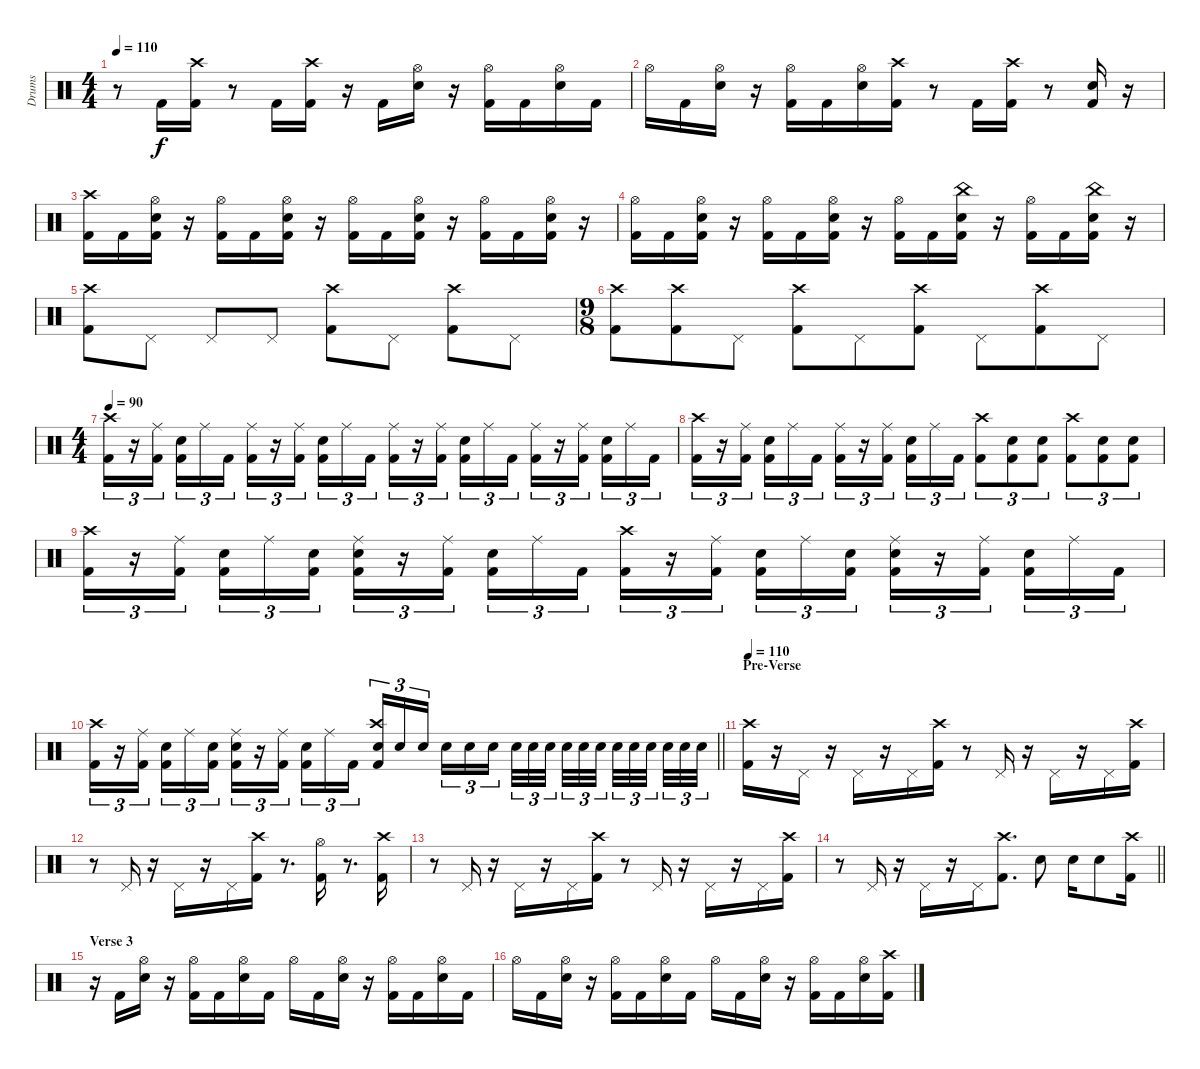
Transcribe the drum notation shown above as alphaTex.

\track ("Drums" "Drums") {instrument percussion}
\staff {score}
\articulation defaults
\ts (4 4)
\tempo 110
\clef neutral
\ks c
r.8{dy f} "Kick (hit) 2".16 ("Crash high (hit)" "Kick (hit) 2").16 r.8 "Kick (hit) 2".16 ("Crash high (hit)" "Kick (hit) 2").16 r.16 "Kick (hit) 2".16 ("Hi-Hat (open)" "Snare (hit) 2").16 r.16 ("Hi-Hat (open)" "Kick (hit) 2").16 "Kick (hit) 2".16 ("Hi-Hat (open)" "Snare (hit) 2").16 "Kick (hit) 2".16 |
"Hi-Hat (open)".16 "Kick (hit) 2".16 ("Hi-Hat (open)" "Snare (hit) 2").16 r.16 ("Hi-Hat (open)" "Kick (hit) 2").16 "Kick (hit) 2".16 ("Hi-Hat (open)" "Snare (hit) 2").16 ("Crash high (hit)" "Kick (hit) 2").16 r.8 "Kick (hit) 2".16 ("Crash high (hit)" "Kick (hit) 2").16 r.8 ("Snare (hit) 2" "Kick (hit) 2").16 r.16 |
("Crash high (hit)" "Kick (hit) 2").16 "Kick (hit) 2".16 ("Hi-Hat (open)" "Snare (hit) 2" "Kick (hit) 2").16 r.16 ("Hi-Hat (open)" "Kick (hit) 2").16 "Kick (hit) 2".16 ("Hi-Hat (open)" "Snare (hit) 2" "Kick (hit) 2").16 r.16 ("Hi-Hat (open)" "Kick (hit) 2").16 "Kick (hit) 2".16 ("Hi-Hat (open)" "Snare (hit) 2" "Kick (hit) 2").16 r.16 ("Hi-Hat (open)" "Kick (hit) 2").16 "Kick (hit) 2".16 ("Hi-Hat (open)" "Snare (hit) 2" "Kick (hit) 2").16 r.16 |
("Hi-Hat (open)" "Kick (hit) 2").16 "Kick (hit) 2".16 ("Hi-Hat (open)" "Snare (hit) 2" "Kick (hit) 2").16 r.16 ("Hi-Hat (open)" "Kick (hit) 2").16 "Kick (hit) 2".16 ("Hi-Hat (open)" "Snare (hit) 2" "Kick (hit) 2").16 r.16 ("Hi-Hat (open)" "Kick (hit) 2").16 "Kick (hit) 2".16 ("China (hit)" "Snare (hit) 2" "Kick (hit) 2").16 r.16 ("Hi-Hat (open)" "Kick (hit) 2").16 "Kick (hit) 2".16 ("China (hit)" "Snare (hit) 2" "Kick (hit) 2").16 r.16 |
("Crash high (hit)" "Kick (hit) 2").8 "Pedal Hi-Hat (hit)".8 "Pedal Hi-Hat (hit)".8 "Pedal Hi-Hat (hit)".8 ("Crash high (hit)" "Kick (hit) 2").8 "Pedal Hi-Hat (hit)".8 ("Crash high (hit)" "Kick (hit) 2").8 "Pedal Hi-Hat (hit)".8 |
\ts (9 8)
("Crash high (hit)" "Kick (hit) 2").8 ("Crash high (hit)" "Kick (hit) 2").8 "Pedal Hi-Hat (hit)".8 ("Crash high (hit)" "Kick (hit) 2").8 "Pedal Hi-Hat (hit)".8 ("Crash high (hit)" "Kick (hit) 2").8 "Pedal Hi-Hat (hit)".8 ("Crash high (hit)" "Kick (hit) 2").8 "Pedal Hi-Hat (hit)".8 |
\ts (4 4)
\tempo 90
("Crash high (hit)" "Kick (hit) 2").16{tu (3 2)} r.16{tu (3 2)} ("Ride (middle)" "Kick (hit) 2").16{tu (3 2) beam splitsecondary} ("Snare (hit) 2" "Kick (hit) 2").16{tu (3 2)} "Ride (middle)".16{tu (3 2)} "Kick (hit) 2".16{tu (3 2)} ("Ride (middle)" "Kick (hit) 2").16{tu (3 2)} r.16{tu (3 2)} ("Ride (middle)" "Kick (hit) 2").16{tu (3 2) beam splitsecondary} ("Snare (hit) 2" "Kick (hit) 2").16{tu (3 2)} "Ride (middle)".16{tu (3 2)} "Kick (hit) 2".16{tu (3 2)} ("Ride (middle)" "Kick (hit) 2").16{tu (3 2)} r.16{tu (3 2)} ("Ride (middle)" "Kick (hit) 2").16{tu (3 2) beam splitsecondary} ("Snare (hit) 2" "Kick (hit) 2").16{tu (3 2)} "Ride (middle)".16{tu (3 2)} "Kick (hit) 2".16{tu (3 2)} ("Ride (middle)" "Kick (hit) 2").16{tu (3 2)} r.16{tu (3 2)} ("Ride (middle)" "Kick (hit) 2").16{tu (3 2) beam splitsecondary} ("Snare (hit) 2" "Kick (hit) 2").16{tu (3 2)} "Ride (middle)".16{tu (3 2)} "Kick (hit) 2".16{tu (3 2)} |
("Crash high (hit)" "Kick (hit) 2").16{tu (3 2)} r.16{tu (3 2)} ("Ride (middle)" "Kick (hit) 2").16{tu (3 2) beam splitsecondary} ("Snare (hit) 2" "Kick (hit) 2").16{tu (3 2)} "Ride (middle)".16{tu (3 2)} "Kick (hit) 2".16{tu (3 2)} ("Ride (middle)" "Kick (hit) 2").16{tu (3 2)} r.16{tu (3 2)} ("Ride (middle)" "Kick (hit) 2").16{tu (3 2) beam splitsecondary} ("Snare (hit) 2" "Kick (hit) 2").16{tu (3 2)} "Ride (middle)".16{tu (3 2)} "Kick (hit) 2".16{tu (3 2)} ("Crash high (hit)" "Kick (hit) 2").8{tu (3 2)} ("Snare (hit) 2" "Kick (hit) 2").8{tu (3 2)} ("Snare (hit) 2" "Kick (hit) 2").8{tu (3 2)} ("Crash high (hit)" "Kick (hit) 2").8{tu (3 2)} ("Snare (hit) 2" "Kick (hit) 2").8{tu (3 2)} ("Snare (hit) 2" "Kick (hit) 2").8{tu (3 2)} |
("Crash high (hit)" "Kick (hit) 2").16{tu (3 2)} r.16{tu (3 2)} ("Ride (middle)" "Kick (hit) 2").16{tu (3 2) beam splitsecondary} ("Snare (hit) 2" "Kick (hit) 2").16{tu (3 2)} "Ride (middle)".16{tu (3 2)} ("Snare (hit) 2" "Kick (hit) 2").16{tu (3 2)} ("Ride (middle)" "Snare (hit) 2" "Kick (hit) 2").16{tu (3 2)} r.16{tu (3 2)} ("Ride (middle)" "Kick (hit) 2").16{tu (3 2) beam splitsecondary} ("Snare (hit) 2" "Kick (hit) 2").16{tu (3 2)} "Ride (middle)".16{tu (3 2)} "Kick (hit) 2".16{tu (3 2)} ("Crash high (hit)" "Kick (hit) 2").16{tu (3 2)} r.16{tu (3 2)} ("Ride (middle)" "Kick (hit) 2").16{tu (3 2) beam splitsecondary} ("Snare (hit) 2" "Kick (hit) 2").16{tu (3 2)} "Ride (middle)".16{tu (3 2)} ("Snare (hit) 2" "Kick (hit) 2").16{tu (3 2)} ("Ride (middle)" "Snare (hit) 2" "Kick (hit) 2").16{tu (3 2)} r.16{tu (3 2)} ("Ride (middle)" "Kick (hit) 2").16{tu (3 2) beam splitsecondary} ("Snare (hit) 2" "Kick (hit) 2").16{tu (3 2)} "Ride (middle)".16{tu (3 2)} "Kick (hit) 2".16{tu (3 2)} |
\barLineRight lightlight
("Crash high (hit)" "Kick (hit) 2").16{tu (3 2)} r.16{tu (3 2)} ("Ride (middle)" "Kick (hit) 2").16{tu (3 2) beam splitsecondary} ("Snare (hit) 2" "Kick (hit) 2").16{tu (3 2)} "Ride (middle)".16{tu (3 2)} ("Snare (hit) 2" "Kick (hit) 2").16{tu (3 2)} ("Ride (middle)" "Snare (hit) 2" "Kick (hit) 2").16{tu (3 2)} r.16{tu (3 2)} ("Ride (middle)" "Kick (hit) 2").16{tu (3 2) beam splitsecondary} ("Snare (hit) 2" "Kick (hit) 2").16{tu (3 2)} "Ride (middle)".16{tu (3 2)} "Kick (hit) 2".16{tu (3 2)} ("Crash high (hit)" "Snare (hit) 2" "Kick (hit) 2").16{tu (3 2)} "Snare (hit) 2".16{tu (3 2)} "Snare (hit) 2".16{tu (3 2) beam splitsecondary} "Snare (hit) 2".16{tu (3 2)} "Snare (hit) 2".16{tu (3 2)} "Snare (hit) 2".16{tu (3 2)} "Snare (hit) 2".32{tu (3 2)} "Snare (hit) 2".32{tu (3 2)} "Snare (hit) 2".32{tu (3 2) beam splitsecondary} "Snare (hit) 2".32{tu (3 2)} "Snare (hit) 2".32{tu (3 2)} "Snare (hit) 2".32{tu (3 2) beam splitsecondary} "Snare (hit) 2".32{tu (3 2)} "Snare (hit) 2".32{tu (3 2)} "Snare (hit) 2".32{tu (3 2) beam splitsecondary} "Snare (hit) 2".32{tu (3 2)} "Snare (hit) 2".32{tu (3 2)} "Snare (hit) 2".32{tu (3 2)} |
\section ("" "Pre-Verse")
\tempo 110
("Crash high (hit)" "Kick (hit) 2").16 r.16 "Pedal Hi-Hat (hit)".16 r.16 "Pedal Hi-Hat (hit)".16 r.16 "Pedal Hi-Hat (hit)".16 ("Crash high (hit)" "Kick (hit) 2").16 r.8 "Pedal Hi-Hat (hit)".16 r.16 "Pedal Hi-Hat (hit)".16 r.16 "Pedal Hi-Hat (hit)".16 ("Crash high (hit)" "Kick (hit) 2").16 |
r.8 "Pedal Hi-Hat (hit)".16 r.16 "Pedal Hi-Hat (hit)".16 r.16 "Pedal Hi-Hat (hit)".16 ("Crash high (hit)" "Kick (hit) 2").16 r.8{d} ("Hi-Hat (open)" "Kick (hit) 2").16 r.8{d} ("Crash high (hit)" "Kick (hit) 2").16 |
r.8 "Pedal Hi-Hat (hit)".16 r.16 "Pedal Hi-Hat (hit)".16 r.16 "Pedal Hi-Hat (hit)".16 ("Crash high (hit)" "Kick (hit) 2").16 r.8 "Pedal Hi-Hat (hit)".16 r.16 "Pedal Hi-Hat (hit)".16 r.16 "Pedal Hi-Hat (hit)".16 ("Crash high (hit)" "Kick (hit) 2").16 |
\barLineRight lightlight
r.8 "Pedal Hi-Hat (hit)".16 r.16 "Pedal Hi-Hat (hit)".16 r.16 "Pedal Hi-Hat (hit)".16 ("Crash high (hit)" "Kick (hit) 2").8{d} "Snare (hit) 2".8 "Snare (hit) 2".16 "Snare (hit) 2".8 ("Crash high (hit)" "Kick (hit) 2").16 |
\section ("" "Verse 3")
r.16 "Kick (hit) 2".16 ("Hi-Hat (open)" "Snare (hit) 2").16 r.16 ("Hi-Hat (open)" "Kick (hit) 2").16 "Kick (hit) 2".16 ("Hi-Hat (open)" "Snare (hit) 2").16 "Kick (hit) 2".16 "Hi-Hat (open)".16 "Kick (hit) 2".16 ("Hi-Hat (open)" "Snare (hit) 2").16 r.16 ("Hi-Hat (open)" "Kick (hit) 2").16 "Kick (hit) 2".16 ("Hi-Hat (open)" "Snare (hit) 2").16 "Kick (hit) 2".16 |
"Hi-Hat (open)".16 "Kick (hit) 2".16 ("Hi-Hat (open)" "Snare (hit) 2").16 r.16 ("Hi-Hat (open)" "Kick (hit) 2").16 "Kick (hit) 2".16 ("Hi-Hat (open)" "Snare (hit) 2").16 "Kick (hit) 2".16 "Hi-Hat (open)".16 "Kick (hit) 2".16 ("Hi-Hat (open)" "Snare (hit) 2").16 r.16 ("Hi-Hat (open)" "Kick (hit) 2").16 "Kick (hit) 2".16 ("Hi-Hat (open)" "Snare (hit) 2").16 ("Crash high (hit)" "Kick (hit) 2").16
